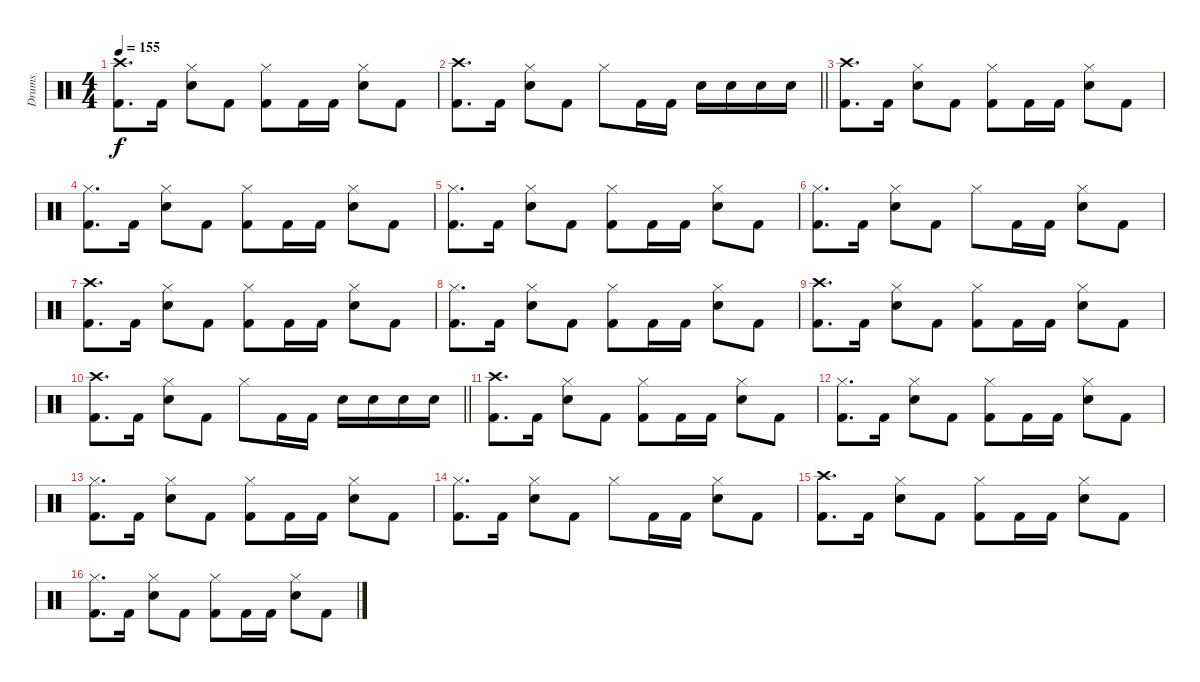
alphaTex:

\track ("Drums" "Drums") {instrument percussion}
\staff {score}
\articulation defaults
\ts (4 4)
\tempo 155
\clef neutral
\ks c
("Crash high (hit)" "Kick (hit) 2").8{d dy f} "Kick (hit) 2".16 ("Hi-Hat (closed)" "Snare (hit) 2").8 "Kick (hit) 2".8 ("Hi-Hat (closed)" "Kick (hit) 2").8 "Kick (hit) 2".16 "Kick (hit) 2".16 ("Hi-Hat (closed)" "Snare (hit) 2").8 "Kick (hit) 2".8 |
\barLineRight lightlight
("Crash high (hit)" "Kick (hit) 2").8{d} "Kick (hit) 2".16 ("Hi-Hat (closed)" "Snare (hit) 2").8 "Kick (hit) 2".8 "Hi-Hat (closed)".8 "Kick (hit) 2".16 "Kick (hit) 2".16 "Snare (hit) 2".16 "Snare (hit) 2".16 "Snare (hit) 2".16 "Snare (hit) 2".16 |
("Crash high (hit)" "Kick (hit) 2").8{d} "Kick (hit) 2".16 ("Hi-Hat (closed)" "Snare (hit) 2").8 "Kick (hit) 2".8 ("Hi-Hat (closed)" "Kick (hit) 2").8 "Kick (hit) 2".16 "Kick (hit) 2".16 ("Hi-Hat (closed)" "Snare (hit) 2").8 "Kick (hit) 2".8 |
("Hi-Hat (closed)" "Kick (hit) 2").8{d} "Kick (hit) 2".16 ("Hi-Hat (closed)" "Snare (hit) 2").8 "Kick (hit) 2".8 ("Hi-Hat (closed)" "Kick (hit) 2").8 "Kick (hit) 2".16 "Kick (hit) 2".16 ("Hi-Hat (closed)" "Snare (hit) 2").8 "Kick (hit) 2".8 |
("Hi-Hat (closed)" "Kick (hit) 2").8{d} "Kick (hit) 2".16 ("Hi-Hat (closed)" "Snare (hit) 2").8 "Kick (hit) 2".8 ("Hi-Hat (closed)" "Kick (hit) 2").8 "Kick (hit) 2".16 "Kick (hit) 2".16 ("Hi-Hat (closed)" "Snare (hit) 2").8 "Kick (hit) 2".8 |
("Hi-Hat (closed)" "Kick (hit) 2").8{d} "Kick (hit) 2".16 ("Hi-Hat (closed)" "Snare (hit) 2").8 "Kick (hit) 2".8 "Hi-Hat (closed)".8 "Kick (hit) 2".16 "Kick (hit) 2".16 ("Hi-Hat (closed)" "Snare (hit) 2").8 "Kick (hit) 2".8 |
("Crash high (hit)" "Kick (hit) 2").8{d} "Kick (hit) 2".16 ("Hi-Hat (closed)" "Snare (hit) 2").8 "Kick (hit) 2".8 ("Hi-Hat (closed)" "Kick (hit) 2").8 "Kick (hit) 2".16 "Kick (hit) 2".16 ("Hi-Hat (closed)" "Snare (hit) 2").8 "Kick (hit) 2".8 |
("Hi-Hat (closed)" "Kick (hit) 2").8{d} "Kick (hit) 2".16 ("Hi-Hat (closed)" "Snare (hit) 2").8 "Kick (hit) 2".8 ("Hi-Hat (closed)" "Kick (hit) 2").8 "Kick (hit) 2".16 "Kick (hit) 2".16 ("Hi-Hat (closed)" "Snare (hit) 2").8 "Kick (hit) 2".8 |
("Crash high (hit)" "Kick (hit) 2").8{d} "Kick (hit) 2".16 ("Hi-Hat (closed)" "Snare (hit) 2").8 "Kick (hit) 2".8 ("Hi-Hat (closed)" "Kick (hit) 2").8 "Kick (hit) 2".16 "Kick (hit) 2".16 ("Hi-Hat (closed)" "Snare (hit) 2").8 "Kick (hit) 2".8 |
\barLineRight lightlight
("Crash high (hit)" "Kick (hit) 2").8{d} "Kick (hit) 2".16 ("Hi-Hat (closed)" "Snare (hit) 2").8 "Kick (hit) 2".8 "Hi-Hat (closed)".8 "Kick (hit) 2".16 "Kick (hit) 2".16 "Snare (hit) 2".16 "Snare (hit) 2".16 "Snare (hit) 2".16 "Snare (hit) 2".16 |
("Crash high (hit)" "Kick (hit) 2").8{d} "Kick (hit) 2".16 ("Hi-Hat (closed)" "Snare (hit) 2").8 "Kick (hit) 2".8 ("Hi-Hat (closed)" "Kick (hit) 2").8 "Kick (hit) 2".16 "Kick (hit) 2".16 ("Hi-Hat (closed)" "Snare (hit) 2").8 "Kick (hit) 2".8 |
("Hi-Hat (closed)" "Kick (hit) 2").8{d} "Kick (hit) 2".16 ("Hi-Hat (closed)" "Snare (hit) 2").8 "Kick (hit) 2".8 ("Hi-Hat (closed)" "Kick (hit) 2").8 "Kick (hit) 2".16 "Kick (hit) 2".16 ("Hi-Hat (closed)" "Snare (hit) 2").8 "Kick (hit) 2".8 |
("Hi-Hat (closed)" "Kick (hit) 2").8{d} "Kick (hit) 2".16 ("Hi-Hat (closed)" "Snare (hit) 2").8 "Kick (hit) 2".8 ("Hi-Hat (closed)" "Kick (hit) 2").8 "Kick (hit) 2".16 "Kick (hit) 2".16 ("Hi-Hat (closed)" "Snare (hit) 2").8 "Kick (hit) 2".8 |
("Hi-Hat (closed)" "Kick (hit) 2").8{d} "Kick (hit) 2".16 ("Hi-Hat (closed)" "Snare (hit) 2").8 "Kick (hit) 2".8 "Hi-Hat (closed)".8 "Kick (hit) 2".16 "Kick (hit) 2".16 ("Hi-Hat (closed)" "Snare (hit) 2").8 "Kick (hit) 2".8 |
("Crash high (hit)" "Kick (hit) 2").8{d} "Kick (hit) 2".16 ("Hi-Hat (closed)" "Snare (hit) 2").8 "Kick (hit) 2".8 ("Hi-Hat (closed)" "Kick (hit) 2").8 "Kick (hit) 2".16 "Kick (hit) 2".16 ("Hi-Hat (closed)" "Snare (hit) 2").8 "Kick (hit) 2".8 |
("Hi-Hat (closed)" "Kick (hit) 2").8{d} "Kick (hit) 2".16 ("Hi-Hat (closed)" "Snare (hit) 2").8 "Kick (hit) 2".8 ("Hi-Hat (closed)" "Kick (hit) 2").8 "Kick (hit) 2".16 "Kick (hit) 2".16 ("Hi-Hat (closed)" "Snare (hit) 2").8 "Kick (hit) 2".8
